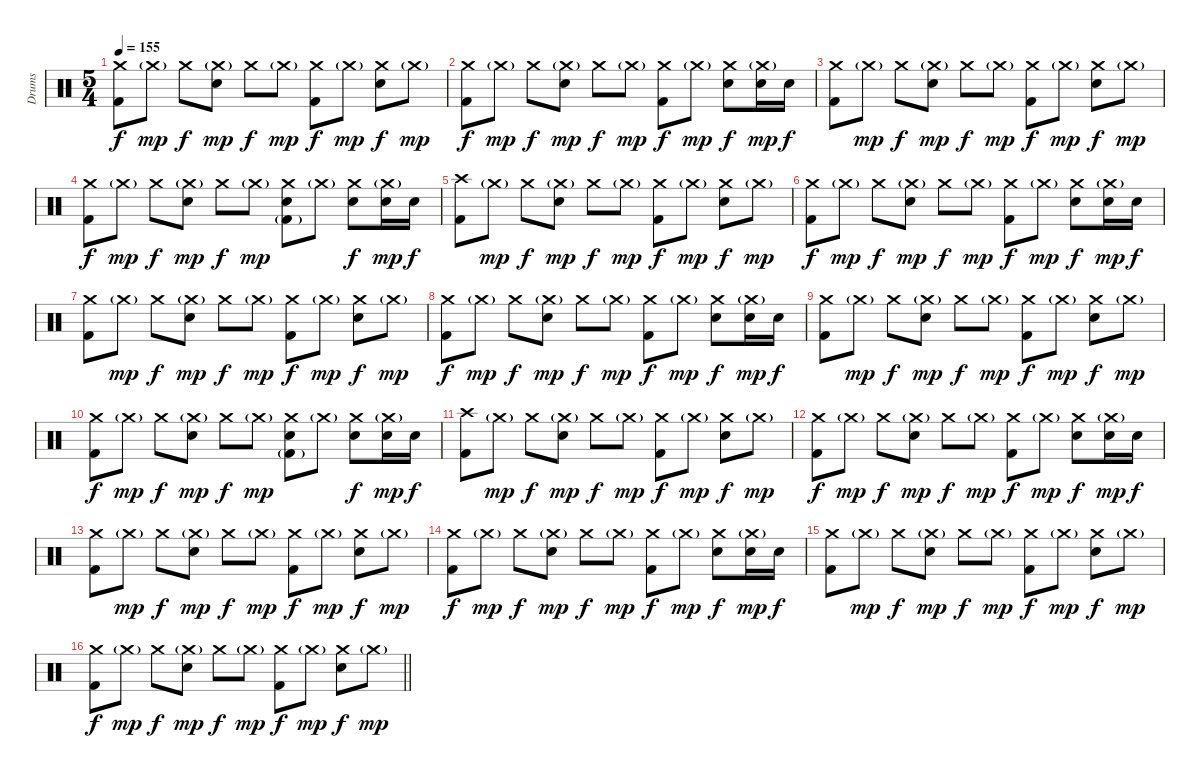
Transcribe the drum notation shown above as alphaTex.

\track ("Drums" "Drums") {instrument percussion}
\staff {score}
\articulation defaults
\ts (5 4)
\tempo 155
\clef neutral
\ks c
("Crash medium (hit)" "Kick (hit) 2").8{dy f} "Crash medium (hit)"{g}.8{dy mp} "Crash medium (hit)".8{dy f} ("Crash medium (hit)"{g} "Electric Snare (hit)").8{dy mp} "Crash medium (hit)".8{dy f} "Crash medium (hit)"{g}.8{dy mp} ("Crash medium (hit)" "Kick (hit) 2").8{dy f} "Crash medium (hit)"{g}.8{dy mp} ("Crash medium (hit)" "Electric Snare (hit)").8{dy f} "Crash medium (hit)"{g}.8{dy mp} |
("Crash medium (hit)" "Kick (hit) 2").8{dy f} "Crash medium (hit)"{g}.8{dy mp} "Crash medium (hit)".8{dy f} ("Crash medium (hit)"{g} "Electric Snare (hit)").8{dy mp} "Crash medium (hit)".8{dy f} "Crash medium (hit)"{g}.8{dy mp} ("Crash medium (hit)" "Kick (hit) 2").8{dy f} "Crash medium (hit)"{g}.8{dy mp} ("Crash medium (hit)" "Electric Snare (hit)").8{dy f} ("Crash medium (hit)"{g} "Electric Snare (hit)").16{dy mp} "Electric Snare (hit)".16{dy f} |
("Crash medium (hit)" "Kick (hit) 2").8 "Crash medium (hit)"{g}.8{dy mp} "Crash medium (hit)".8{dy f} ("Crash medium (hit)"{g} "Electric Snare (hit)").8{dy mp} "Crash medium (hit)".8{dy f} "Crash medium (hit)"{g}.8{dy mp} ("Crash medium (hit)" "Kick (hit) 2").8{dy f} "Crash medium (hit)"{g}.8{dy mp} ("Crash medium (hit)" "Electric Snare (hit)").8{dy f} "Crash medium (hit)"{g}.8{dy mp} |
("Crash medium (hit)" "Kick (hit) 2").8{dy f} "Crash medium (hit)"{g}.8{dy mp} "Crash medium (hit)".8{dy f} ("Crash medium (hit)"{g} "Electric Snare (hit)").8{dy mp} "Crash medium (hit)".8{dy f} "Crash medium (hit)"{g}.8{dy mp} ("Crash medium (hit)" "Electric Snare (hit)" "Kick (hit) 2"{g}).8 "Crash medium (hit)"{g}.8 ("Crash medium (hit)" "Electric Snare (hit)").8{dy f} ("Crash medium (hit)"{g} "Electric Snare (hit)").16{dy mp} "Electric Snare (hit)".16{dy f} |
("Crash high (hit)" "Kick (hit) 2").8 "Crash medium (hit)"{g}.8{dy mp} "Crash medium (hit)".8{dy f} ("Crash medium (hit)"{g} "Electric Snare (hit)").8{dy mp} "Crash medium (hit)".8{dy f} "Crash medium (hit)"{g}.8{dy mp} ("Crash medium (hit)" "Kick (hit) 2").8{dy f} "Crash medium (hit)"{g}.8{dy mp} ("Crash medium (hit)" "Electric Snare (hit)").8{dy f} "Crash medium (hit)"{g}.8{dy mp} |
("Crash medium (hit)" "Kick (hit) 2").8{dy f} "Crash medium (hit)"{g}.8{dy mp} "Crash medium (hit)".8{dy f} ("Crash medium (hit)"{g} "Electric Snare (hit)").8{dy mp} "Crash medium (hit)".8{dy f} "Crash medium (hit)"{g}.8{dy mp} ("Crash medium (hit)" "Kick (hit) 2").8{dy f} "Crash medium (hit)"{g}.8{dy mp} ("Crash medium (hit)" "Electric Snare (hit)").8{dy f} ("Crash medium (hit)"{g} "Electric Snare (hit)").16{dy mp} "Electric Snare (hit)".16{dy f} |
("Crash medium (hit)" "Kick (hit) 2").8 "Crash medium (hit)"{g}.8{dy mp} "Crash medium (hit)".8{dy f} ("Crash medium (hit)"{g} "Electric Snare (hit)").8{dy mp} "Crash medium (hit)".8{dy f} "Crash medium (hit)"{g}.8{dy mp} ("Crash medium (hit)" "Kick (hit) 2").8{dy f} "Crash medium (hit)"{g}.8{dy mp} ("Crash medium (hit)" "Electric Snare (hit)").8{dy f} "Crash medium (hit)"{g}.8{dy mp} |
("Crash medium (hit)" "Kick (hit) 2").8{dy f} "Crash medium (hit)"{g}.8{dy mp} "Crash medium (hit)".8{dy f} ("Crash medium (hit)"{g} "Electric Snare (hit)").8{dy mp} "Crash medium (hit)".8{dy f} "Crash medium (hit)"{g}.8{dy mp} ("Crash medium (hit)" "Kick (hit) 2").8{dy f} "Crash medium (hit)"{g}.8{dy mp} ("Crash medium (hit)" "Electric Snare (hit)").8{dy f} ("Crash medium (hit)"{g} "Electric Snare (hit)").16{dy mp} "Electric Snare (hit)".16{dy f} |
("Crash medium (hit)" "Kick (hit) 2").8 "Crash medium (hit)"{g}.8{dy mp} "Crash medium (hit)".8{dy f} ("Crash medium (hit)"{g} "Electric Snare (hit)").8{dy mp} "Crash medium (hit)".8{dy f} "Crash medium (hit)"{g}.8{dy mp} ("Crash medium (hit)" "Kick (hit) 2").8{dy f} "Crash medium (hit)"{g}.8{dy mp} ("Crash medium (hit)" "Electric Snare (hit)").8{dy f} "Crash medium (hit)"{g}.8{dy mp} |
("Crash medium (hit)" "Kick (hit) 2").8{dy f} "Crash medium (hit)"{g}.8{dy mp} "Crash medium (hit)".8{dy f} ("Crash medium (hit)"{g} "Electric Snare (hit)").8{dy mp} "Crash medium (hit)".8{dy f} "Crash medium (hit)"{g}.8{dy mp} ("Crash medium (hit)" "Electric Snare (hit)" "Kick (hit) 2"{g}).8 "Crash medium (hit)"{g}.8 ("Crash medium (hit)" "Electric Snare (hit)").8{dy f} ("Crash medium (hit)"{g} "Electric Snare (hit)").16{dy mp} "Electric Snare (hit)".16{dy f} |
("Crash high (hit)" "Kick (hit) 2").8 "Crash medium (hit)"{g}.8{dy mp} "Crash medium (hit)".8{dy f} ("Crash medium (hit)"{g} "Electric Snare (hit)").8{dy mp} "Crash medium (hit)".8{dy f} "Crash medium (hit)"{g}.8{dy mp} ("Crash medium (hit)" "Kick (hit) 2").8{dy f} "Crash medium (hit)"{g}.8{dy mp} ("Crash medium (hit)" "Electric Snare (hit)").8{dy f} "Crash medium (hit)"{g}.8{dy mp} |
("Crash medium (hit)" "Kick (hit) 2").8{dy f} "Crash medium (hit)"{g}.8{dy mp} "Crash medium (hit)".8{dy f} ("Crash medium (hit)"{g} "Electric Snare (hit)").8{dy mp} "Crash medium (hit)".8{dy f} "Crash medium (hit)"{g}.8{dy mp} ("Crash medium (hit)" "Kick (hit) 2").8{dy f} "Crash medium (hit)"{g}.8{dy mp} ("Crash medium (hit)" "Electric Snare (hit)").8{dy f} ("Crash medium (hit)"{g} "Electric Snare (hit)").16{dy mp} "Electric Snare (hit)".16{dy f} |
("Crash medium (hit)" "Kick (hit) 2").8 "Crash medium (hit)"{g}.8{dy mp} "Crash medium (hit)".8{dy f} ("Crash medium (hit)"{g} "Electric Snare (hit)").8{dy mp} "Crash medium (hit)".8{dy f} "Crash medium (hit)"{g}.8{dy mp} ("Crash medium (hit)" "Kick (hit) 2").8{dy f} "Crash medium (hit)"{g}.8{dy mp} ("Crash medium (hit)" "Electric Snare (hit)").8{dy f} "Crash medium (hit)"{g}.8{dy mp} |
("Crash medium (hit)" "Kick (hit) 2").8{dy f} "Crash medium (hit)"{g}.8{dy mp} "Crash medium (hit)".8{dy f} ("Crash medium (hit)"{g} "Electric Snare (hit)").8{dy mp} "Crash medium (hit)".8{dy f} "Crash medium (hit)"{g}.8{dy mp} ("Crash medium (hit)" "Kick (hit) 2").8{dy f} "Crash medium (hit)"{g}.8{dy mp} ("Crash medium (hit)" "Electric Snare (hit)").8{dy f} ("Crash medium (hit)"{g} "Electric Snare (hit)").16{dy mp} "Electric Snare (hit)".16{dy f} |
("Crash medium (hit)" "Kick (hit) 2").8 "Crash medium (hit)"{g}.8{dy mp} "Crash medium (hit)".8{dy f} ("Crash medium (hit)"{g} "Electric Snare (hit)").8{dy mp} "Crash medium (hit)".8{dy f} "Crash medium (hit)"{g}.8{dy mp} ("Crash medium (hit)" "Kick (hit) 2").8{dy f} "Crash medium (hit)"{g}.8{dy mp} ("Crash medium (hit)" "Electric Snare (hit)").8{dy f} "Crash medium (hit)"{g}.8{dy mp} |
\barLineRight lightlight
("Crash medium (hit)" "Kick (hit) 2").8{dy f} "Crash medium (hit)"{g}.8{dy mp} "Crash medium (hit)".8{dy f} ("Crash medium (hit)"{g} "Electric Snare (hit)").8{dy mp} "Crash medium (hit)".8{dy f} "Crash medium (hit)"{g}.8{dy mp} ("Crash medium (hit)" "Kick (hit) 2").8{dy f} "Crash medium (hit)"{g}.8{dy mp} ("Crash medium (hit)" "Electric Snare (hit)").8{dy f} "Crash medium (hit)"{g}.8{dy mp}
